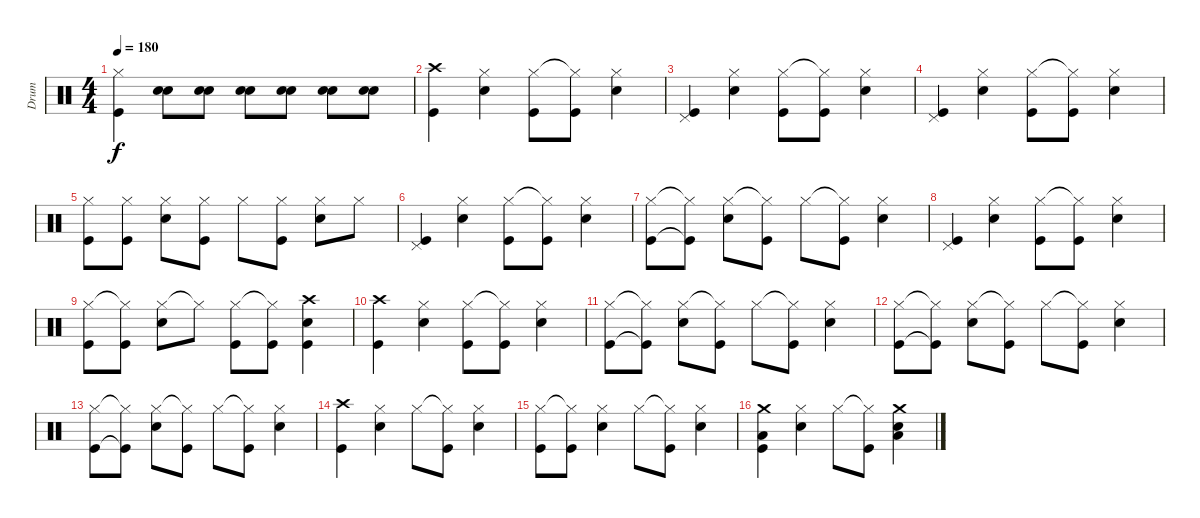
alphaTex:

\track ("Drum" "Drum") {instrument percussion}
\staff {score}
\articulation defaults
\ts (4 4)
\tempo 180
\clef neutral
\ks c
("Hi-Hat (closed)" "Kick (hit)").4{dy f} ("Snare (hit) 2" "Snare (hit) 2").8 ("Snare (hit) 2" "Snare (hit) 2").8 ("Snare (hit) 2" "Snare (hit) 2").8 ("Snare (hit) 2" "Snare (hit) 2").8 ("Snare (hit) 2" "Snare (hit) 2").8 ("Snare (hit) 2" "Snare (hit) 2").8 |
("Crash high (hit)" "Kick (hit)").4 ("Hi-Hat (closed)" "Snare (hit) 2").4 ("Hi-Hat (closed)" "Kick (hit)").8 ("Hi-Hat (closed)"{t} "Kick (hit)").8 ("Hi-Hat (closed)" "Snare (hit) 2").4 |
("Pedal Hi-Hat (hit)" "Kick (hit)").4 ("Hi-Hat (closed)" "Snare (hit) 2").4 ("Hi-Hat (closed)" "Kick (hit)").8 ("Hi-Hat (closed)"{t} "Kick (hit)").8 ("Hi-Hat (closed)" "Snare (hit) 2").4 |
("Pedal Hi-Hat (hit)" "Kick (hit)").4 ("Hi-Hat (closed)" "Snare (hit) 2").4 ("Hi-Hat (closed)" "Kick (hit)").8 ("Hi-Hat (closed)"{t} "Kick (hit)").8 ("Hi-Hat (closed)" "Snare (hit) 2").4 |
("Hi-Hat (closed)" "Kick (hit)").8 ("Hi-Hat (closed)" "Kick (hit)").8 ("Hi-Hat (closed)" "Snare (hit) 2").8 ("Hi-Hat (closed)" "Kick (hit)").8 "Hi-Hat (closed)".8 ("Hi-Hat (closed)" "Kick (hit)").8 ("Hi-Hat (closed)" "Snare (hit) 2").8 "Hi-Hat (closed)".8 |
("Pedal Hi-Hat (hit)" "Kick (hit)").4 ("Hi-Hat (closed)" "Snare (hit) 2").4 ("Hi-Hat (closed)" "Kick (hit)").8 ("Hi-Hat (closed)"{t} "Kick (hit)").8 ("Hi-Hat (closed)" "Snare (hit) 2").4 |
("Hi-Hat (closed)" "Kick (hit)").8 ("Hi-Hat (closed)"{t} "Kick (hit)"{t}).8 ("Hi-Hat (closed)" "Snare (hit) 2").8 ("Hi-Hat (closed)"{t} "Kick (hit)").8 "Hi-Hat (closed)".8 ("Hi-Hat (closed)"{t} "Kick (hit)").8 ("Hi-Hat (closed)" "Snare (hit) 2").4 |
("Pedal Hi-Hat (hit)" "Kick (hit)").4 ("Hi-Hat (closed)" "Snare (hit) 2").4 ("Hi-Hat (closed)" "Kick (hit)").8 ("Hi-Hat (closed)"{t} "Kick (hit)").8 ("Hi-Hat (closed)" "Snare (hit) 2").4 |
("Hi-Hat (closed)" "Kick (hit)").8 ("Hi-Hat (closed)"{t} "Kick (hit)").8 ("Hi-Hat (closed)" "Snare (hit) 2").8 "Hi-Hat (closed)"{t}.8 ("Hi-Hat (closed)" "Kick (hit)").8 ("Hi-Hat (closed)"{t} "Kick (hit)").8 ("Crash high (hit)" "Snare (hit) 2" "Kick (hit)").4 |
("Crash high (hit)" "Kick (hit)").4 ("Hi-Hat (closed)" "Snare (hit) 2").4 ("Hi-Hat (closed)" "Kick (hit)").8 ("Hi-Hat (closed)"{t} "Kick (hit)").8 ("Hi-Hat (closed)" "Snare (hit) 2").4 |
("Hi-Hat (closed)" "Kick (hit)").8 ("Hi-Hat (closed)"{t} "Kick (hit)"{t}).8 ("Hi-Hat (closed)" "Snare (hit) 2").8 ("Hi-Hat (closed)"{t} "Kick (hit)").8 "Hi-Hat (closed)".8 ("Hi-Hat (closed)"{t} "Kick (hit)").8 ("Hi-Hat (closed)" "Snare (hit) 2").4 |
("Hi-Hat (closed)" "Kick (hit)").8 ("Hi-Hat (closed)"{t} "Kick (hit)"{t}).8 ("Hi-Hat (closed)" "Snare (hit) 2").8 ("Hi-Hat (closed)"{t} "Kick (hit)").8 "Hi-Hat (closed)".8 ("Hi-Hat (closed)"{t} "Kick (hit)").8 ("Hi-Hat (closed)" "Snare (hit) 2").4 |
("Hi-Hat (closed)" "Kick (hit)").8 ("Hi-Hat (closed)"{t} "Kick (hit)"{t}).8 ("Hi-Hat (closed)" "Snare (hit) 2").8 ("Hi-Hat (closed)"{t} "Kick (hit)").8 "Hi-Hat (closed)".8 ("Hi-Hat (closed)"{t} "Kick (hit)").8 ("Hi-Hat (closed)" "Snare (hit) 2").4 |
("Crash high (hit)" "Kick (hit)").4 ("Hi-Hat (closed)" "Snare (hit) 2").4 "Hi-Hat (closed)".8 ("Hi-Hat (closed)"{t} "Kick (hit)").8 ("Hi-Hat (closed)" "Snare (hit) 2").4 |
("Hi-Hat (closed)" "Kick (hit)").8 ("Hi-Hat (closed)"{t} "Kick (hit)").8 ("Hi-Hat (closed)" "Snare (hit) 2").4 "Hi-Hat (closed)".8 ("Hi-Hat (closed)"{t} "Kick (hit)").8 ("Hi-Hat (closed)" "Snare (hit) 2").4 |
("Low Floor Tom (hit)" "Crash medium (hit)" "Kick (hit)").4 ("Hi-Hat (closed)" "Snare (hit) 2").4 "Hi-Hat (closed)".8 ("Hi-Hat (closed)"{t} "Kick (hit)").8 ("Low Floor Tom (hit)" "Snare (hit) 2" "Crash medium (hit)").4
